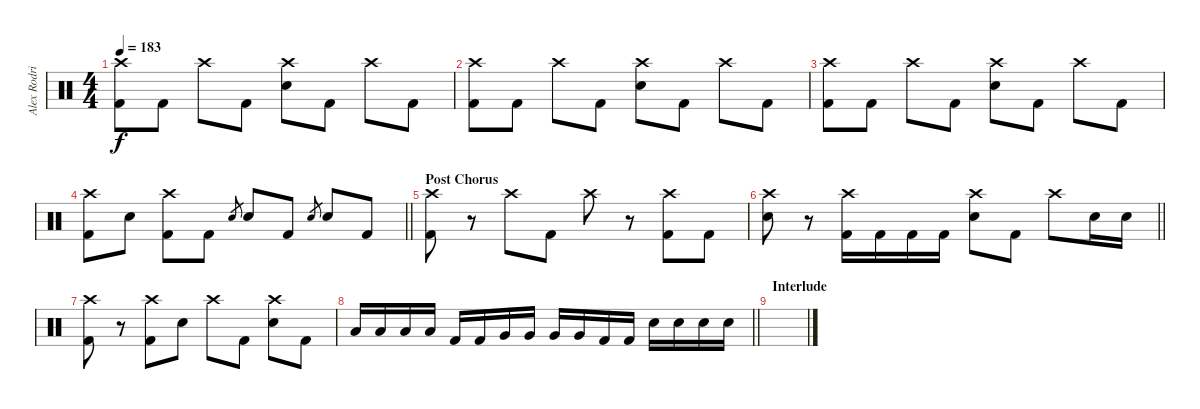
\track ("Alex Rodriguez [Not Finished Yet]" "Alex Rodri") {mute instrument percussion}
\staff {score}
\articulation defaults
\ts (4 4)
\tempo 183
\clef neutral
\ks c
("Crash high (hit)" "Kick (hit) 2").8{dy f} "Kick (hit) 2".8 "Crash high (hit)".8 "Kick (hit) 2".8 ("Crash high (hit)" "Electric Snare (hit)").8 "Kick (hit) 2".8 "Crash high (hit)".8 "Kick (hit) 2".8 |
("Crash high (hit)" "Kick (hit) 2").8 "Kick (hit) 2".8 "Crash high (hit)".8 "Kick (hit) 2".8 ("Crash high (hit)" "Electric Snare (hit)").8 "Kick (hit) 2".8 "Crash high (hit)".8 "Kick (hit) 2".8 |
("Crash high (hit)" "Kick (hit) 2").8 "Kick (hit) 2".8 "Crash high (hit)".8 "Kick (hit) 2".8 ("Crash high (hit)" "Electric Snare (hit)").8 "Kick (hit) 2".8 "Crash high (hit)".8 "Kick (hit) 2".8 |
\barLineRight lightlight
("Crash high (hit)" "Kick (hit) 2").8 "Electric Snare (hit)".8 ("Crash high (hit)" "Kick (hit) 2").8 "Kick (hit) 2".8 "Electric Snare (hit)".8{gr} "Electric Snare (hit)".8 "Kick (hit) 2".8 "Electric Snare (hit)".8{gr} "Electric Snare (hit)".8 "Kick (hit) 2".8 |
\section ("" "Post Chorus")
("Crash high (hit)" "Kick (hit) 2").8 r.8 "Crash high (hit)".8 "Kick (hit) 2".8 "Crash high (hit)".8 r.8 ("Crash high (hit)" "Kick (hit) 2").8 "Kick (hit) 2".8 |
\barLineRight lightlight
("Crash high (hit)" "Electric Snare (hit)").8 r.8 ("Crash high (hit)" "Kick (hit) 2").16 "Kick (hit) 2".16 "Kick (hit) 2".16 "Kick (hit) 2".16 ("Crash high (hit)" "Electric Snare (hit)").8 "Kick (hit) 2".8 "Crash high (hit)".8 "Electric Snare (hit)".16 "Electric Snare (hit)".16 |
("Crash high (hit)" "Kick (hit) 2").8 r.8 ("Crash high (hit)" "Kick (hit) 2").8 "Electric Snare (hit)".8 "Crash high (hit)".8 "Kick (hit) 2".8 ("Crash high (hit)" "Electric Snare (hit)").8 "Kick (hit) 2".8 |
\barLineRight lightlight "Low Tom (hit)".16 "Low Tom (hit)".16 "Low Tom (hit)".16 "Low Tom (hit)".16 "Kick (hit) 2".16 "Kick (hit) 2".16 "Very Low Tom (hit)".16 "Very Low Tom (hit)".16 "Very Low Tom (hit)".16 "Very Low Tom (hit)".16 "Kick (hit) 2".16 "Kick (hit) 2".16 "Electric Snare (hit)".16 "Electric Snare (hit)".16 "Electric Snare (hit)".16 "Electric Snare (hit)".16
|
\section ("" "Interlude")
